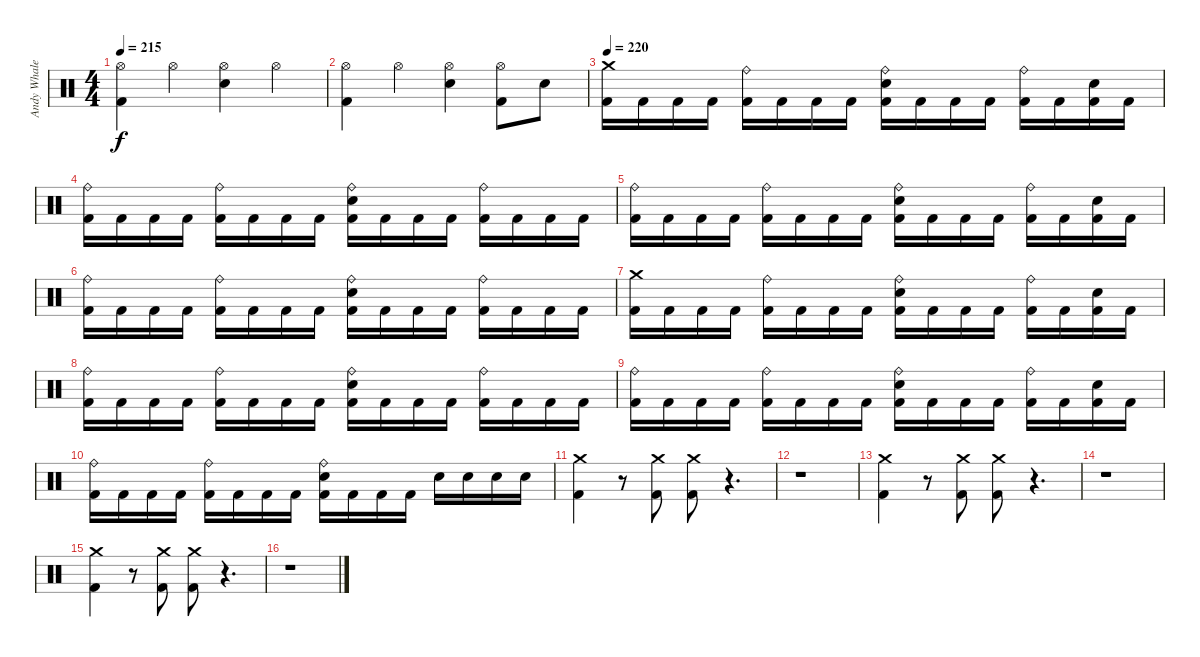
\track ("Andy Whale" "Andy Whale") {instrument percussion}
\staff {score}
\articulation defaults
\ts (4 4)
\tempo 215
\clef neutral
\ks c
("Hi-Hat (open)" "Kick (hit) 2").4{dy f} "Hi-Hat (open)".4 ("Hi-Hat (open)" "Snare (hit) 2").4 "Hi-Hat (open)".4 |
("Hi-Hat (open)" "Kick (hit) 2").4 "Hi-Hat (open)".4 ("Hi-Hat (open)" "Snare (hit) 2").4 ("Hi-Hat (open)" "Kick (hit) 2").8 "Snare (hit) 2".8 |
\tempo 220
("Crash medium (hit)" "Kick (hit) 2").16 "Kick (hit) 2".16 "Kick (hit) 2".16 "Kick (hit) 2".16 ("Ride (bell)" "Kick (hit) 2").16 "Kick (hit) 2".16 "Kick (hit) 2".16 "Kick (hit) 2".16 ("Ride (bell)" "Snare (hit) 2" "Kick (hit) 2").16 "Kick (hit) 2".16 "Kick (hit) 2".16 "Kick (hit) 2".16 ("Ride (bell)" "Kick (hit) 2").16 "Kick (hit) 2".16 ("Snare (hit) 2" "Kick (hit) 2").16 "Kick (hit) 2".16 |
("Ride (bell)" "Kick (hit) 2").16 "Kick (hit) 2".16 "Kick (hit) 2".16 "Kick (hit) 2".16 ("Ride (bell)" "Kick (hit) 2").16 "Kick (hit) 2".16 "Kick (hit) 2".16 "Kick (hit) 2".16 ("Ride (bell)" "Snare (hit) 2" "Kick (hit) 2").16 "Kick (hit) 2".16 "Kick (hit) 2".16 "Kick (hit) 2".16 ("Ride (bell)" "Kick (hit) 2").16 "Kick (hit) 2".16 "Kick (hit) 2".16 "Kick (hit) 2".16 |
("Ride (bell)" "Kick (hit) 2").16 "Kick (hit) 2".16 "Kick (hit) 2".16 "Kick (hit) 2".16 ("Ride (bell)" "Kick (hit) 2").16 "Kick (hit) 2".16 "Kick (hit) 2".16 "Kick (hit) 2".16 ("Ride (bell)" "Snare (hit) 2" "Kick (hit) 2").16 "Kick (hit) 2".16 "Kick (hit) 2".16 "Kick (hit) 2".16 ("Ride (bell)" "Kick (hit) 2").16 "Kick (hit) 2".16 ("Snare (hit) 2" "Kick (hit) 2").16 "Kick (hit) 2".16 |
("Ride (bell)" "Kick (hit) 2").16 "Kick (hit) 2".16 "Kick (hit) 2".16 "Kick (hit) 2".16 ("Ride (bell)" "Kick (hit) 2").16 "Kick (hit) 2".16 "Kick (hit) 2".16 "Kick (hit) 2".16 ("Ride (bell)" "Snare (hit) 2" "Kick (hit) 2").16 "Kick (hit) 2".16 "Kick (hit) 2".16 "Kick (hit) 2".16 ("Ride (bell)" "Kick (hit) 2").16 "Kick (hit) 2".16 "Kick (hit) 2".16 "Kick (hit) 2".16 |
("Crash medium (hit)" "Kick (hit) 2").16 "Kick (hit) 2".16 "Kick (hit) 2".16 "Kick (hit) 2".16 ("Ride (bell)" "Kick (hit) 2").16 "Kick (hit) 2".16 "Kick (hit) 2".16 "Kick (hit) 2".16 ("Ride (bell)" "Snare (hit) 2" "Kick (hit) 2").16 "Kick (hit) 2".16 "Kick (hit) 2".16 "Kick (hit) 2".16 ("Ride (bell)" "Kick (hit) 2").16 "Kick (hit) 2".16 ("Snare (hit) 2" "Kick (hit) 2").16 "Kick (hit) 2".16 |
("Ride (bell)" "Kick (hit) 2").16 "Kick (hit) 2".16 "Kick (hit) 2".16 "Kick (hit) 2".16 ("Ride (bell)" "Kick (hit) 2").16 "Kick (hit) 2".16 "Kick (hit) 2".16 "Kick (hit) 2".16 ("Ride (bell)" "Snare (hit) 2" "Kick (hit) 2").16 "Kick (hit) 2".16 "Kick (hit) 2".16 "Kick (hit) 2".16 ("Ride (bell)" "Kick (hit) 2").16 "Kick (hit) 2".16 "Kick (hit) 2".16 "Kick (hit) 2".16 |
("Ride (bell)" "Kick (hit) 2").16 "Kick (hit) 2".16 "Kick (hit) 2".16 "Kick (hit) 2".16 ("Ride (bell)" "Kick (hit) 2").16 "Kick (hit) 2".16 "Kick (hit) 2".16 "Kick (hit) 2".16 ("Ride (bell)" "Snare (hit) 2" "Kick (hit) 2").16 "Kick (hit) 2".16 "Kick (hit) 2".16 "Kick (hit) 2".16 ("Ride (bell)" "Kick (hit) 2").16 "Kick (hit) 2".16 ("Snare (hit) 2" "Kick (hit) 2").16 "Kick (hit) 2".16 |
("Ride (bell)" "Kick (hit) 2").16 "Kick (hit) 2".16 "Kick (hit) 2".16 "Kick (hit) 2".16 ("Ride (bell)" "Kick (hit) 2").16 "Kick (hit) 2".16 "Kick (hit) 2".16 "Kick (hit) 2".16 ("Ride (bell)" "Snare (hit) 2" "Kick (hit) 2").16 "Kick (hit) 2".16 "Kick (hit) 2".16 "Kick (hit) 2".16 "Snare (hit) 2".16 "Snare (hit) 2".16 "Snare (hit) 2".16 "Snare (hit) 2".16 |
("Crash medium (hit)" "Kick (hit) 2").4 r.8 ("Crash medium (hit)" "Kick (hit) 2").8 ("Crash medium (hit)" "Kick (hit) 2").8 r.4{d} |
r.1 |
("Crash medium (hit)" "Kick (hit) 2").4 r.8 ("Crash medium (hit)" "Kick (hit) 2").8 ("Crash medium (hit)" "Kick (hit) 2").8 r.4{d} |
r.1 |
("Crash medium (hit)" "Kick (hit) 2").4 r.8 ("Crash medium (hit)" "Kick (hit) 2").8 ("Crash medium (hit)" "Kick (hit) 2").8 r.4{d} |
r.1
